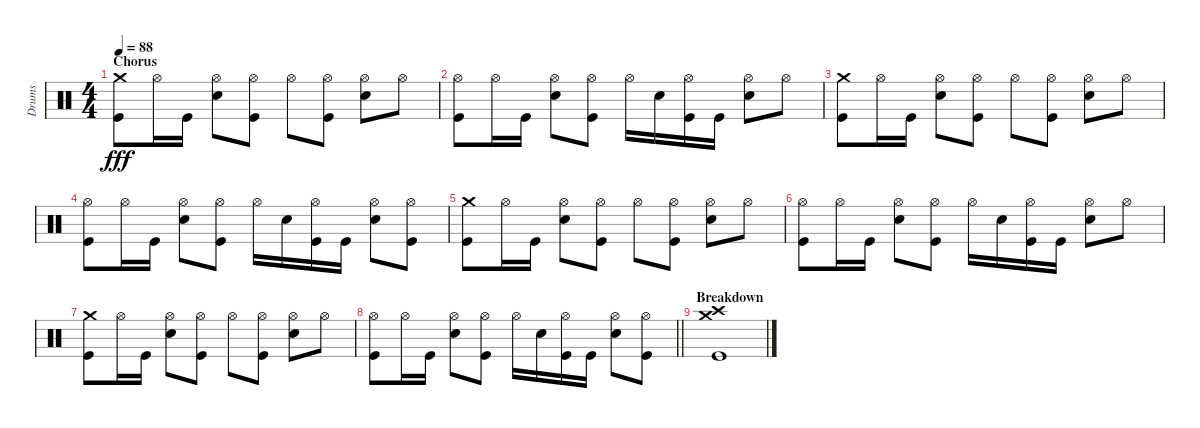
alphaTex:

\track ("Drums" "Drums") {instrument percussion}
\staff {score}
\articulation defaults
\ts (4 4)
\section ("" "Chorus")
\tempo 88
\clef neutral
\ks c
("Crash medium (hit)" "Kick (hit)").8{dy fff} "Hi-Hat (open)".16 "Kick (hit)".16 ("Hi-Hat (open)" "Snare (hit) 2").8 ("Hi-Hat (open)" "Kick (hit)").8 "Hi-Hat (open)".8 ("Hi-Hat (open)" "Kick (hit)").8 ("Hi-Hat (open)" "Snare (hit) 2").8 "Hi-Hat (open)".8 |
("Hi-Hat (open)" "Kick (hit)").8 "Hi-Hat (open)".16 "Kick (hit)".16 ("Hi-Hat (open)" "Snare (hit) 2").8 ("Hi-Hat (open)" "Kick (hit)").8 "Hi-Hat (open)".16 "Snare (hit) 2".16 ("Hi-Hat (open)" "Kick (hit)").16 "Kick (hit)".16 ("Hi-Hat (open)" "Snare (hit) 2").8 "Hi-Hat (open)".8 |
("Crash medium (hit)" "Kick (hit)").8 "Hi-Hat (open)".16 "Kick (hit)".16 ("Hi-Hat (open)" "Snare (hit) 2").8 ("Hi-Hat (open)" "Kick (hit)").8 "Hi-Hat (open)".8 ("Hi-Hat (open)" "Kick (hit)").8 ("Hi-Hat (open)" "Snare (hit) 2").8 "Hi-Hat (open)".8 |
("Hi-Hat (open)" "Kick (hit)").8 "Hi-Hat (open)".16 "Kick (hit)".16 ("Hi-Hat (open)" "Snare (hit) 2").8 ("Hi-Hat (open)" "Kick (hit)").8 "Hi-Hat (open)".16 "Snare (hit) 2".16 ("Hi-Hat (open)" "Kick (hit)").16 "Kick (hit)".16 ("Hi-Hat (open)" "Snare (hit) 2").8 ("Hi-Hat (open)" "Kick (hit)").8 |
("Crash medium (hit)" "Kick (hit)").8 "Hi-Hat (open)".16 "Kick (hit)".16 ("Hi-Hat (open)" "Snare (hit) 2").8 ("Hi-Hat (open)" "Kick (hit)").8 "Hi-Hat (open)".8 ("Hi-Hat (open)" "Kick (hit)").8 ("Hi-Hat (open)" "Snare (hit) 2").8 "Hi-Hat (open)".8 |
("Hi-Hat (open)" "Kick (hit)").8 "Hi-Hat (open)".16 "Kick (hit)".16 ("Hi-Hat (open)" "Snare (hit) 2").8 ("Hi-Hat (open)" "Kick (hit)").8 "Hi-Hat (open)".16 "Snare (hit) 2".16 ("Hi-Hat (open)" "Kick (hit)").16 "Kick (hit)".16 ("Hi-Hat (open)" "Snare (hit) 2").8 "Hi-Hat (open)".8 |
("Crash medium (hit)" "Kick (hit)").8 "Hi-Hat (open)".16 "Kick (hit)".16 ("Hi-Hat (open)" "Snare (hit) 2").8 ("Hi-Hat (open)" "Kick (hit)").8 "Hi-Hat (open)".8 ("Hi-Hat (open)" "Kick (hit)").8 ("Hi-Hat (open)" "Snare (hit) 2").8 "Hi-Hat (open)".8 |
\barLineRight lightlight
("Hi-Hat (open)" "Kick (hit)").8 "Hi-Hat (open)".16 "Kick (hit)".16 ("Hi-Hat (open)" "Snare (hit) 2").8 ("Hi-Hat (open)" "Kick (hit)").8 "Hi-Hat (open)".16 "Snare (hit) 2".16 ("Hi-Hat (open)" "Kick (hit)").16 "Kick (hit)".16 ("Hi-Hat (open)" "Snare (hit) 2").8 ("Hi-Hat (open)" "Kick (hit)").8 |
\section ("" "Breakdown")
("Crash medium (hit)" "Crash high (hit)" "Kick (hit)").1
